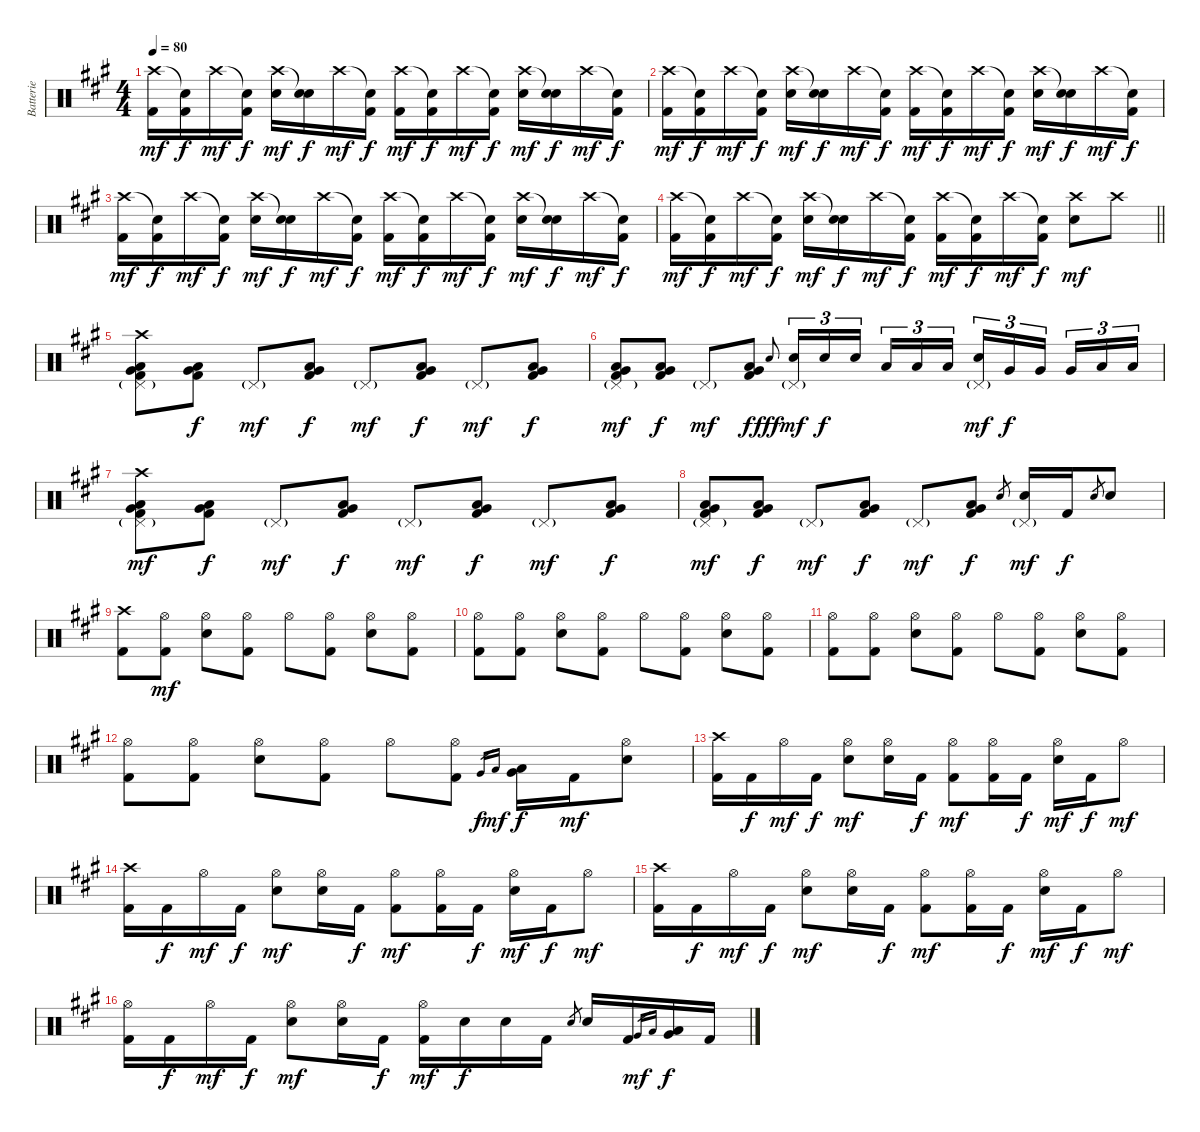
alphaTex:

\track ("Batterie" "Batterie") {instrument percussion}
\staff {score}
\articulation defaults
\ts (4 4)
\tempo 80
\clef neutral
\ks a
("Crash high (hit)" "Kick (hit) 2").16{dy mf} ("Snare (hit)"{t} "Kick (hit) 2").16{dy f} "Crash high (hit)".16{dy mf} ("Snare (hit)"{t} "Kick (hit) 2").16{dy f} ("Crash high (hit)" "Electric Snare (hit)").16{dy mf} ("Snare (hit)"{t} "Electric Snare (hit)").16{dy f} "Crash high (hit)".16{dy mf} ("Snare (hit)"{t} "Kick (hit) 2").16{dy f} ("Crash high (hit)" "Kick (hit) 2").16{dy mf} ("Snare (hit)"{t} "Kick (hit) 2").16{dy f} "Crash high (hit)".16{dy mf} ("Snare (hit)"{t} "Kick (hit) 2").16{dy f} ("Crash high (hit)" "Electric Snare (hit)").16{dy mf} ("Snare (hit)"{t} "Electric Snare (hit)").16{dy f} "Crash high (hit)".16{dy mf} ("Snare (hit)"{t} "Kick (hit) 2").16{dy f} |
("Crash high (hit)" "Kick (hit) 2").16{dy mf} ("Snare (hit)"{t} "Kick (hit) 2").16{dy f} "Crash high (hit)".16{dy mf} ("Snare (hit)"{t} "Kick (hit) 2").16{dy f} ("Crash high (hit)" "Electric Snare (hit)").16{dy mf} ("Snare (hit)"{t} "Electric Snare (hit)").16{dy f} "Crash high (hit)".16{dy mf} ("Snare (hit)"{t} "Kick (hit) 2").16{dy f} ("Crash high (hit)" "Kick (hit) 2").16{dy mf} ("Snare (hit)"{t} "Kick (hit) 2").16{dy f} "Crash high (hit)".16{dy mf} ("Snare (hit)"{t} "Kick (hit) 2").16{dy f} ("Crash high (hit)" "Electric Snare (hit)").16{dy mf} ("Snare (hit)"{t} "Electric Snare (hit)").16{dy f} "Crash high (hit)".16{dy mf} ("Snare (hit)"{t} "Kick (hit) 2").16{dy f} |
("Crash high (hit)" "Kick (hit) 2").16{dy mf} ("Snare (hit)"{t} "Kick (hit) 2").16{dy f} "Crash high (hit)".16{dy mf} ("Snare (hit)"{t} "Kick (hit) 2").16{dy f} ("Crash high (hit)" "Electric Snare (hit)").16{dy mf} ("Snare (hit)"{t} "Electric Snare (hit)").16{dy f} "Crash high (hit)".16{dy mf} ("Snare (hit)"{t} "Kick (hit) 2").16{dy f} ("Crash high (hit)" "Kick (hit) 2").16{dy mf} ("Snare (hit)"{t} "Kick (hit) 2").16{dy f} "Crash high (hit)".16{dy mf} ("Snare (hit)"{t} "Kick (hit) 2").16{dy f} ("Crash high (hit)" "Electric Snare (hit)").16{dy mf} ("Snare (hit)"{t} "Electric Snare (hit)").16{dy f} "Crash high (hit)".16{dy mf} ("Snare (hit)"{t} "Kick (hit) 2").16{dy f} |
\barLineRight lightlight
("Crash high (hit)" "Kick (hit) 2").16{dy mf} ("Snare (hit)"{t} "Kick (hit) 2").16{dy f} "Crash high (hit)".16{dy mf} ("Snare (hit)"{t} "Kick (hit) 2").16{dy f} ("Crash high (hit)" "Electric Snare (hit)").16{dy mf} ("Snare (hit)"{t} "Electric Snare (hit)").16{dy f} "Crash high (hit)".16{dy mf} ("Snare (hit)"{t} "Kick (hit) 2").16{dy f} ("Crash high (hit)" "Kick (hit) 2").16{dy mf} ("Snare (hit)"{t} "Kick (hit) 2").16{dy f} "Crash high (hit)".16{dy mf} ("Snare (hit)"{t} "Kick (hit) 2").16{dy f} ("Crash high (hit)" "Electric Snare (hit)").8{dy mf} "Crash high (hit)".8 |
("Crash high (hit)" "Pedal Hi-Hat (hit)"{g} "Low Floor Tom (hit)" "Very Low Tom (hit)" "Kick (hit) 2").8 ("Low Floor Tom (hit)" "Very Low Tom (hit)" "Kick (hit) 2").8{dy f} "Pedal Hi-Hat (hit)"{g}.8{dy mf} ("Low Floor Tom (hit)" "Very Low Tom (hit)" "Kick (hit) 2").8{dy f} "Pedal Hi-Hat (hit)"{g}.8{dy mf} ("Low Floor Tom (hit)" "Very Low Tom (hit)" "Kick (hit) 2").8{dy f} "Pedal Hi-Hat (hit)"{g}.8{dy mf} ("Low Floor Tom (hit)" "Very Low Tom (hit)" "Kick (hit) 2").8{dy f} |
("Pedal Hi-Hat (hit)"{g} "Low Floor Tom (hit)" "Very Low Tom (hit)" "Kick (hit) 2").8{dy mf} ("Low Floor Tom (hit)" "Very Low Tom (hit)" "Kick (hit) 2").8{dy f} "Pedal Hi-Hat (hit)"{g}.8{dy mf} ("Low Floor Tom (hit)" "Very Low Tom (hit)" "Kick (hit) 2").8{dy f} "Electric Snare (hit)".8{gr onbeat dy fff} ("Pedal Hi-Hat (hit)"{g} "Electric Snare (hit)").16{tu (3 2) dy mf} "Electric Snare (hit)".16{tu (3 2) dy f} "Electric Snare (hit)".16{tu (3 2) beam splitsecondary} "Low Tom (hit)".16{tu (3 2)} "Low Tom (hit)".16{tu (3 2)} "Low Tom (hit)".16{tu (3 2)} ("Pedal Hi-Hat (hit)"{g} "Electric Snare (hit)").16{tu (3 2) dy mf} "Very Low Tom (hit)".16{tu (3 2) dy f} "Very Low Tom (hit)".16{tu (3 2) beam splitsecondary} "Very Low Tom (hit)".16{tu (3 2)} "Low Floor Tom (hit)".16{tu (3 2)} "Low Floor Tom (hit)".16{tu (3 2)} |
("Crash high (hit)" "Pedal Hi-Hat (hit)"{g} "Low Floor Tom (hit)" "Very Low Tom (hit)" "Kick (hit) 2").8{dy mf} ("Low Floor Tom (hit)" "Very Low Tom (hit)" "Kick (hit) 2").8{dy f} "Pedal Hi-Hat (hit)"{g}.8{dy mf} ("Low Floor Tom (hit)" "Very Low Tom (hit)" "Kick (hit) 2").8{dy f} "Pedal Hi-Hat (hit)"{g}.8{dy mf} ("Low Floor Tom (hit)" "Very Low Tom (hit)" "Kick (hit) 2").8{dy f} "Pedal Hi-Hat (hit)"{g}.8{dy mf} ("Low Floor Tom (hit)" "Very Low Tom (hit)" "Kick (hit) 2").8{dy f} |
("Pedal Hi-Hat (hit)"{g} "Low Floor Tom (hit)" "Very Low Tom (hit)" "Kick (hit) 2").8{dy mf} ("Low Floor Tom (hit)" "Very Low Tom (hit)" "Kick (hit) 2").8{dy f} "Pedal Hi-Hat (hit)"{g}.8{dy mf} ("Low Floor Tom (hit)" "Very Low Tom (hit)" "Kick (hit) 2").8{dy f} "Pedal Hi-Hat (hit)"{g}.8{dy mf} ("Low Floor Tom (hit)" "Very Low Tom (hit)" "Kick (hit) 2").8{dy f} "Electric Snare (hit)".8{gr} ("Pedal Hi-Hat (hit)"{g} "Electric Snare (hit)").16{dy mf} "Kick (hit) 2".16{dy f} "Electric Snare (hit)".8{gr} "Electric Snare (hit)".8 |
("Crash high (hit)" "Kick (hit) 2").8 ("Hi-Hat (open)" "Kick (hit) 2").8{dy mf} ("Hi-Hat (open)" "Electric Snare (hit)").8 ("Hi-Hat (open)" "Kick (hit) 2").8 "Hi-Hat (open)".8 ("Hi-Hat (open)" "Kick (hit) 2").8 ("Hi-Hat (open)" "Electric Snare (hit)").8 ("Hi-Hat (open)" "Kick (hit) 2").8 |
("Hi-Hat (open)" "Kick (hit) 2").8 ("Hi-Hat (open)" "Kick (hit) 2").8 ("Hi-Hat (open)" "Electric Snare (hit)").8 ("Hi-Hat (open)" "Kick (hit) 2").8 "Hi-Hat (open)".8 ("Hi-Hat (open)" "Kick (hit) 2").8 ("Hi-Hat (open)" "Electric Snare (hit)").8 ("Hi-Hat (open)" "Kick (hit) 2").8 |
("Hi-Hat (open)" "Kick (hit) 2").8 ("Hi-Hat (open)" "Kick (hit) 2").8 ("Hi-Hat (open)" "Electric Snare (hit)").8 ("Hi-Hat (open)" "Kick (hit) 2").8 "Hi-Hat (open)".8 ("Hi-Hat (open)" "Kick (hit) 2").8 ("Hi-Hat (open)" "Electric Snare (hit)").8 ("Hi-Hat (open)" "Kick (hit) 2").8 |
("Hi-Hat (open)" "Kick (hit) 2").8 ("Hi-Hat (open)" "Kick (hit) 2").8 ("Hi-Hat (open)" "Electric Snare (hit)").8 ("Hi-Hat (open)" "Kick (hit) 2").8 "Hi-Hat (open)".8 ("Hi-Hat (open)" "Kick (hit) 2").8 "Very Low Tom (hit)".16{gr dy f} "Low Floor Tom (hit)".16{gr dy mf} ("Very Low Tom (hit)" "Low Floor Tom (hit)").16{dy f} "Kick (hit) 2".16{dy mf} ("Hi-Hat (open)" "Electric Snare (hit)").8 |
("Crash high (hit)" "Kick (hit) 2").16 "Kick (hit) 2".16{dy f} "Hi-Hat (open)".16{dy mf} "Kick (hit) 2".16{dy f} ("Hi-Hat (open)" "Electric Snare (hit)").8{dy mf} ("Hi-Hat (open)" "Electric Snare (hit)").16 "Kick (hit) 2".16{dy f} ("Hi-Hat (open)" "Kick (hit) 2").8{dy mf} ("Hi-Hat (open)" "Kick (hit) 2").16 "Kick (hit) 2".16{dy f} ("Hi-Hat (open)" "Electric Snare (hit)").16{dy mf} "Kick (hit) 2".16{dy f} "Hi-Hat (open)".8{dy mf} |
("Crash high (hit)" "Kick (hit) 2").16 "Kick (hit) 2".16{dy f} "Hi-Hat (open)".16{dy mf} "Kick (hit) 2".16{dy f} ("Hi-Hat (open)" "Electric Snare (hit)").8{dy mf} ("Hi-Hat (open)" "Electric Snare (hit)").16 "Kick (hit) 2".16{dy f} ("Hi-Hat (open)" "Kick (hit) 2").8{dy mf} ("Hi-Hat (open)" "Kick (hit) 2").16 "Kick (hit) 2".16{dy f} ("Hi-Hat (open)" "Electric Snare (hit)").16{dy mf} "Kick (hit) 2".16{dy f} "Hi-Hat (open)".8{dy mf} |
("Crash high (hit)" "Kick (hit) 2").16 "Kick (hit) 2".16{dy f} "Hi-Hat (open)".16{dy mf} "Kick (hit) 2".16{dy f} ("Hi-Hat (open)" "Electric Snare (hit)").8{dy mf} ("Hi-Hat (open)" "Electric Snare (hit)").16 "Kick (hit) 2".16{dy f} ("Hi-Hat (open)" "Kick (hit) 2").8{dy mf} ("Hi-Hat (open)" "Kick (hit) 2").16 "Kick (hit) 2".16{dy f} ("Hi-Hat (open)" "Electric Snare (hit)").16{dy mf} "Kick (hit) 2".16{dy f} "Hi-Hat (open)".8{dy mf} |
("Hi-Hat (open)" "Kick (hit) 2").16 "Kick (hit) 2".16{dy f} "Hi-Hat (open)".16{dy mf} "Kick (hit) 2".16{dy f} ("Hi-Hat (open)" "Electric Snare (hit)").8{dy mf} ("Hi-Hat (open)" "Electric Snare (hit)").16 "Kick (hit) 2".16{dy f} ("Hi-Hat (open)" "Kick (hit) 2").16{dy mf} "Electric Snare (hit)".16{dy f} "Electric Snare (hit)".16 "Kick (hit) 2".16 "Electric Snare (hit)".8{gr} "Electric Snare (hit)".16 "Kick (hit) 2".16 "Very Low Tom (hit)".16{gr dy mf} "Low Floor Tom (hit)".16{gr} ("Very Low Tom (hit)" "Low Floor Tom (hit)").16{dy f} "Kick (hit) 2".16
